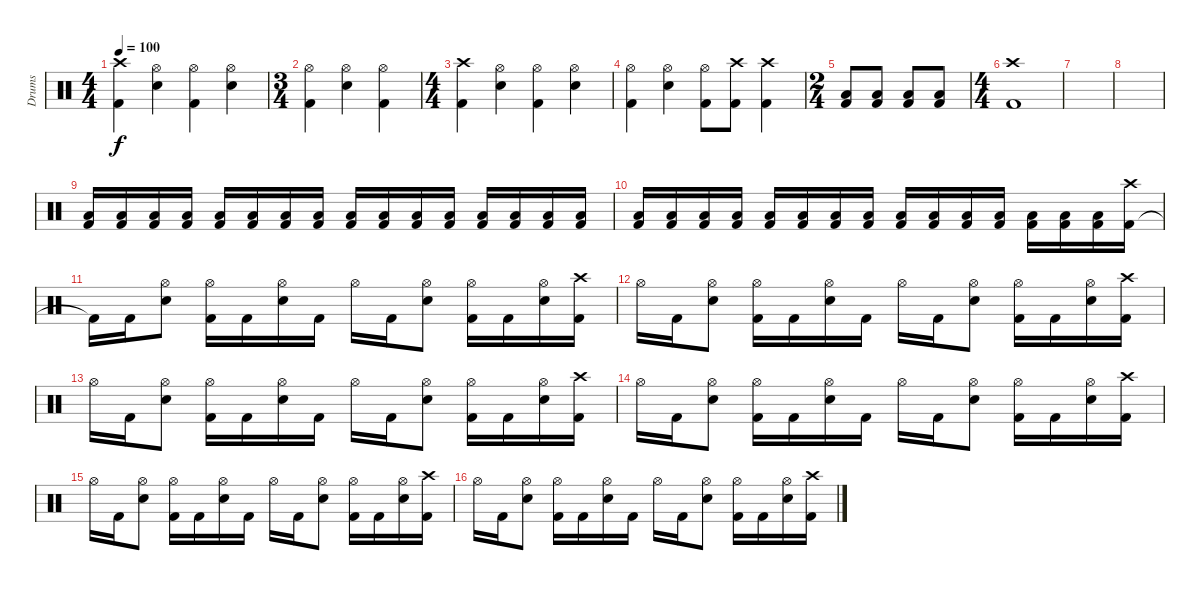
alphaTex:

\track ("Drums" "Drums") {instrument percussion}
\staff {score}
\articulation defaults
\ts (4 4)
\tempo 100
\clef neutral
\ks c
("Kick (hit) 2" "Crash high (hit)").4{dy f} ("Snare (hit) 2" "Hi-Hat (open)").4 ("Kick (hit) 2" "Hi-Hat (open)").4 ("Snare (hit) 2" "Hi-Hat (open)").4 |
\ts (3 4)
("Kick (hit) 2" "Hi-Hat (open)").4 ("Snare (hit) 2" "Hi-Hat (open)").4 ("Kick (hit) 2" "Hi-Hat (open)").4 |
\ts (4 4)
("Kick (hit) 2" "Crash high (hit)").4 ("Snare (hit) 2" "Hi-Hat (open)").4 ("Kick (hit) 2" "Hi-Hat (open)").4 ("Snare (hit) 2" "Hi-Hat (open)").4 |
("Kick (hit) 2" "Hi-Hat (open)").4 ("Snare (hit) 2" "Hi-Hat (open)").4 ("Kick (hit) 2" "Hi-Hat (open)").8 ("Kick (hit) 2" "Crash high (hit)").8 ("Kick (hit) 2" "Crash high (hit)").4 |
\ts (2 4)
("Kick (hit) 2" "Low Floor Tom (hit)").8 ("Kick (hit) 2" "Low Floor Tom (hit)").8 ("Kick (hit) 2" "Low Floor Tom (hit)").8 ("Kick (hit) 2" "Low Floor Tom (hit)").8 |
\ts (4 4)
("Kick (hit) 2" "Crash high (hit)").1 |
|
|
("Kick (hit) 2" "Low Floor Tom (hit)").16{volume 13} ("Kick (hit) 2" "Low Floor Tom (hit)").16 ("Kick (hit) 2" "Low Floor Tom (hit)").16 ("Kick (hit) 2" "Low Floor Tom (hit)").16 ("Kick (hit) 2" "Low Floor Tom (hit)").16 ("Kick (hit) 2" "Low Floor Tom (hit)").16 ("Kick (hit) 2" "Low Floor Tom (hit)").16 ("Kick (hit) 2" "Low Floor Tom (hit)").16 ("Kick (hit) 2" "Low Floor Tom (hit)").16 ("Kick (hit) 2" "Low Floor Tom (hit)").16 ("Kick (hit) 2" "Low Floor Tom (hit)").16 ("Kick (hit) 2" "Low Floor Tom (hit)").16 ("Kick (hit) 2" "Low Floor Tom (hit)").16 ("Kick (hit) 2" "Low Floor Tom (hit)").16 ("Kick (hit) 2" "Low Floor Tom (hit)").16 ("Kick (hit) 2" "Low Floor Tom (hit)").16 |
("Kick (hit) 2" "Low Floor Tom (hit)").16 ("Kick (hit) 2" "Low Floor Tom (hit)").16 ("Kick (hit) 2" "Low Floor Tom (hit)").16 ("Kick (hit) 2" "Low Floor Tom (hit)").16 ("Kick (hit) 2" "Low Floor Tom (hit)").16 ("Kick (hit) 2" "Low Floor Tom (hit)").16 ("Kick (hit) 2" "Low Floor Tom (hit)").16 ("Kick (hit) 2" "Low Floor Tom (hit)").16 ("Kick (hit) 2" "Low Floor Tom (hit)").16 ("Kick (hit) 2" "Low Floor Tom (hit)").16 ("Kick (hit) 2" "Low Floor Tom (hit)").16 ("Kick (hit) 2" "Low Floor Tom (hit)").16 ("Kick (hit) 2" "Low Floor Tom (hit)").16 ("Kick (hit) 2" "Low Floor Tom (hit)").16 ("Kick (hit) 2" "Low Floor Tom (hit)").16 ("Kick (hit) 2" "Crash high (hit)").16 |
"Kick (hit) 2"{t}.16 "Kick (hit) 2".16 ("Snare (hit) 2" "Hi-Hat (open)").8 ("Kick (hit) 2" "Hi-Hat (open)").16 "Kick (hit) 2".16 ("Snare (hit) 2" "Hi-Hat (open)").16 "Kick (hit) 2".16 "Hi-Hat (open)".16 "Kick (hit) 2".16 ("Snare (hit) 2" "Hi-Hat (open)").8 ("Kick (hit) 2" "Hi-Hat (open)").16 "Kick (hit) 2".16 ("Snare (hit) 2" "Hi-Hat (open)").16 ("Kick (hit) 2" "Crash high (hit)").16 |
"Hi-Hat (open)".16 "Kick (hit) 2".16 ("Snare (hit) 2" "Hi-Hat (open)").8 ("Kick (hit) 2" "Hi-Hat (open)").16 "Kick (hit) 2".16 ("Snare (hit) 2" "Hi-Hat (open)").16 "Kick (hit) 2".16 "Hi-Hat (open)".16 "Kick (hit) 2".16 ("Snare (hit) 2" "Hi-Hat (open)").8 ("Kick (hit) 2" "Hi-Hat (open)").16 "Kick (hit) 2".16 ("Snare (hit) 2" "Hi-Hat (open)").16 ("Kick (hit) 2" "Crash high (hit)").16 |
"Hi-Hat (open)".16 "Kick (hit) 2".16 ("Snare (hit) 2" "Hi-Hat (open)").8 ("Kick (hit) 2" "Hi-Hat (open)").16 "Kick (hit) 2".16 ("Snare (hit) 2" "Hi-Hat (open)").16 "Kick (hit) 2".16 "Hi-Hat (open)".16 "Kick (hit) 2".16 ("Snare (hit) 2" "Hi-Hat (open)").8 ("Kick (hit) 2" "Hi-Hat (open)").16 "Kick (hit) 2".16 ("Snare (hit) 2" "Hi-Hat (open)").16 ("Kick (hit) 2" "Crash high (hit)").16 |
"Hi-Hat (open)".16 "Kick (hit) 2".16 ("Snare (hit) 2" "Hi-Hat (open)").8 ("Kick (hit) 2" "Hi-Hat (open)").16 "Kick (hit) 2".16 ("Snare (hit) 2" "Hi-Hat (open)").16 "Kick (hit) 2".16 "Hi-Hat (open)".16 "Kick (hit) 2".16 ("Snare (hit) 2" "Hi-Hat (open)").8 ("Kick (hit) 2" "Hi-Hat (open)").16 "Kick (hit) 2".16 ("Snare (hit) 2" "Hi-Hat (open)").16 ("Kick (hit) 2" "Crash high (hit)").16 |
"Hi-Hat (open)".16 "Kick (hit) 2".16 ("Snare (hit) 2" "Hi-Hat (open)").8 ("Kick (hit) 2" "Hi-Hat (open)").16 "Kick (hit) 2".16 ("Snare (hit) 2" "Hi-Hat (open)").16 "Kick (hit) 2".16 "Hi-Hat (open)".16 "Kick (hit) 2".16 ("Snare (hit) 2" "Hi-Hat (open)").8 ("Kick (hit) 2" "Hi-Hat (open)").16 "Kick (hit) 2".16 ("Snare (hit) 2" "Hi-Hat (open)").16 ("Kick (hit) 2" "Crash high (hit)").16 |
"Hi-Hat (open)".16 "Kick (hit) 2".16 ("Snare (hit) 2" "Hi-Hat (open)").8 ("Kick (hit) 2" "Hi-Hat (open)").16 "Kick (hit) 2".16 ("Snare (hit) 2" "Hi-Hat (open)").16 "Kick (hit) 2".16 "Hi-Hat (open)".16 "Kick (hit) 2".16 ("Snare (hit) 2" "Hi-Hat (open)").8 ("Kick (hit) 2" "Hi-Hat (open)").16 "Kick (hit) 2".16 ("Snare (hit) 2" "Hi-Hat (open)").16 ("Kick (hit) 2" "Crash high (hit)").16
